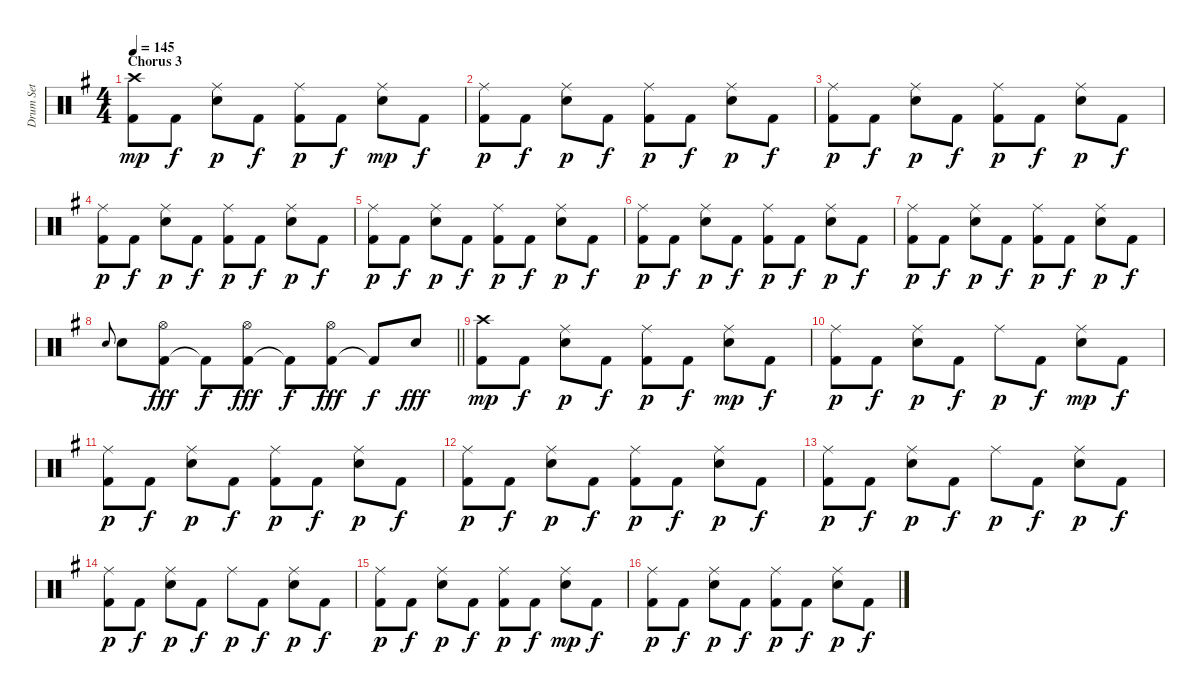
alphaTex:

\track ("Drum Set" "Drum Set") {instrument percussion}
\staff {score}
\articulation defaults
\ts (4 4)
\section ("" "Chorus 3")
\tempo 145
\clef neutral
\ks g
("Crash high (hit)" "Kick (hit) 2").8{dy mp} "Kick (hit) 2".8{dy f} ("Electric Snare (hit)" "Ride (middle)").8{dy p} "Kick (hit) 2".8{dy f} ("Kick (hit) 2" "Ride (middle)").8{dy p} "Kick (hit) 2".8{dy f} ("Electric Snare (hit)" "Ride (middle)").8{dy mp} "Kick (hit) 2".8{dy f} |
("Kick (hit) 2" "Ride (middle)").8{dy p} "Kick (hit) 2".8{dy f} ("Electric Snare (hit)" "Ride (middle)").8{dy p} "Kick (hit) 2".8{dy f} ("Kick (hit) 2" "Ride (middle)").8{dy p} "Kick (hit) 2".8{dy f} ("Electric Snare (hit)" "Ride (middle)").8{dy p} "Kick (hit) 2".8{dy f} |
("Kick (hit) 2" "Ride (middle)").8{dy p} "Kick (hit) 2".8{dy f} ("Electric Snare (hit)" "Ride (middle)").8{dy p} "Kick (hit) 2".8{dy f} ("Kick (hit) 2" "Ride (middle)").8{dy p} "Kick (hit) 2".8{dy f} ("Electric Snare (hit)" "Ride (middle)").8{dy p} "Kick (hit) 2".8{dy f} |
("Kick (hit) 2" "Ride (middle)").8{dy p} "Kick (hit) 2".8{dy f} ("Electric Snare (hit)" "Ride (middle)").8{dy p} "Kick (hit) 2".8{dy f} ("Kick (hit) 2" "Ride (middle)").8{dy p} "Kick (hit) 2".8{dy f} ("Electric Snare (hit)" "Ride (middle)").8{dy p} "Kick (hit) 2".8{dy f} |
("Kick (hit) 2" "Ride (middle)").8{dy p} "Kick (hit) 2".8{dy f} ("Electric Snare (hit)" "Ride (middle)").8{dy p} "Kick (hit) 2".8{dy f} ("Kick (hit) 2" "Ride (middle)").8{dy p} "Kick (hit) 2".8{dy f} ("Electric Snare (hit)" "Ride (middle)").8{dy p} "Kick (hit) 2".8{dy f} |
("Kick (hit) 2" "Ride (middle)").8{dy p} "Kick (hit) 2".8{dy f} ("Electric Snare (hit)" "Ride (middle)").8{dy p} "Kick (hit) 2".8{dy f} ("Kick (hit) 2" "Ride (middle)").8{dy p} "Kick (hit) 2".8{dy f} ("Electric Snare (hit)" "Ride (middle)").8{dy p} "Kick (hit) 2".8{dy f} |
("Kick (hit) 2" "Ride (middle)").8{dy p} "Kick (hit) 2".8{dy f} ("Electric Snare (hit)" "Ride (middle)").8{dy p} "Kick (hit) 2".8{dy f} ("Kick (hit) 2" "Ride (middle)").8{dy p} "Kick (hit) 2".8{dy f} ("Electric Snare (hit)" "Ride (middle)").8{dy p} "Kick (hit) 2".8{dy f} |
\barLineRight lightlight "Electric Snare (hit)".8{gr onbeat} "Electric Snare (hit)".8
("Kick (hit) 2" "Hi-Hat (open)").8{dy fff} "Kick (hit) 2"{t}.8{dy f} ("Kick (hit) 2" "Hi-Hat (open)").8{dy fff} "Kick (hit) 2"{t}.8{dy f} ("Kick (hit) 2" "Hi-Hat (open)").8{dy fff} "Kick (hit) 2"{t}.8{dy f} "Electric Snare (hit)".8{dy fff} |
("Crash high (hit)" "Kick (hit) 2").8{dy mp} "Kick (hit) 2".8{dy f} ("Electric Snare (hit)" "Ride (middle)").8{dy p} "Kick (hit) 2".8{dy f} ("Kick (hit) 2" "Ride (middle)").8{dy p} "Kick (hit) 2".8{dy f} ("Electric Snare (hit)" "Ride (middle)").8{dy mp} "Kick (hit) 2".8{dy f} |
("Kick (hit) 2" "Ride (middle)").8{dy p} "Kick (hit) 2".8{dy f} ("Electric Snare (hit)" "Ride (middle)").8{dy p} "Kick (hit) 2".8{dy f} "Ride (middle)".8{dy p} "Kick (hit) 2".8{dy f} ("Electric Snare (hit)" "Ride (middle)").8{dy mp} "Kick (hit) 2".8{dy f} |
("Kick (hit) 2" "Ride (middle)").8{dy p} "Kick (hit) 2".8{dy f} ("Electric Snare (hit)" "Ride (middle)").8{dy p} "Kick (hit) 2".8{dy f} ("Kick (hit) 2" "Ride (middle)").8{dy p} "Kick (hit) 2".8{dy f} ("Electric Snare (hit)" "Ride (middle)").8{dy p} "Kick (hit) 2".8{dy f} |
("Kick (hit) 2" "Ride (middle)").8{dy p} "Kick (hit) 2".8{dy f} ("Electric Snare (hit)" "Ride (middle)").8{dy p} "Kick (hit) 2".8{dy f} ("Kick (hit) 2" "Ride (middle)").8{dy p} "Kick (hit) 2".8{dy f} ("Electric Snare (hit)" "Ride (middle)").8{dy p} "Kick (hit) 2".8{dy f} |
("Kick (hit) 2" "Ride (middle)").8{dy p} "Kick (hit) 2".8{dy f} ("Electric Snare (hit)" "Ride (middle)").8{dy p} "Kick (hit) 2".8{dy f} "Ride (middle)".8{dy p} "Kick (hit) 2".8{dy f} ("Electric Snare (hit)" "Ride (middle)").8{dy p} "Kick (hit) 2".8{dy f} |
("Kick (hit) 2" "Ride (middle)").8{dy p} "Kick (hit) 2".8{dy f} ("Electric Snare (hit)" "Ride (middle)").8{dy p} "Kick (hit) 2".8{dy f} "Ride (middle)".8{dy p} "Kick (hit) 2".8{dy f} ("Electric Snare (hit)" "Ride (middle)").8{dy p} "Kick (hit) 2".8{dy f} |
("Kick (hit) 2" "Ride (middle)").8{dy p} "Kick (hit) 2".8{dy f} ("Electric Snare (hit)" "Ride (middle)").8{dy p} "Kick (hit) 2".8{dy f} ("Kick (hit) 2" "Ride (middle)").8{dy p} "Kick (hit) 2".8{dy f} ("Electric Snare (hit)" "Ride (middle)").8{dy mp} "Kick (hit) 2".8{dy f} |
("Kick (hit) 2" "Ride (middle)").8{dy p} "Kick (hit) 2".8{dy f} ("Electric Snare (hit)" "Ride (middle)").8{dy p} "Kick (hit) 2".8{dy f} ("Kick (hit) 2" "Ride (middle)").8{dy p} "Kick (hit) 2".8{dy f} ("Electric Snare (hit)" "Ride (middle)").8{dy p} "Kick (hit) 2".8{dy f}
